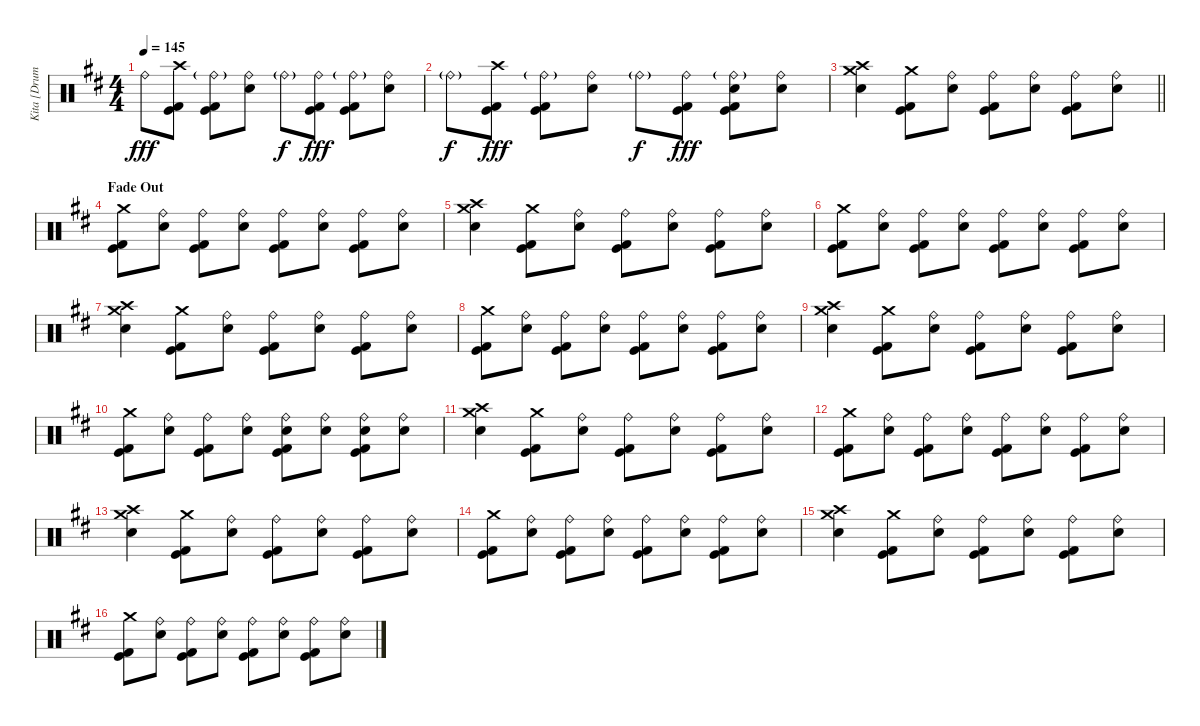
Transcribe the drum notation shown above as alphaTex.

\track ("Kita [Drums]" "Kita [Drum") {instrument percussion}
\staff {score}
\articulation defaults
\ts (4 4)
\tempo 145
\clef neutral
\ks d "Ride (bell)".8{dy fff}
("Crash high (hit)" "Kick (hit)" "Kick (hit) 2").8 ("Ride (bell)"{g} "Kick (hit)" "Kick (hit) 2").8 ("Ride (bell)" "Electric Snare (hit)").8 "Ride (bell)"{g}.8{dy f} ("Ride (bell)" "Kick (hit)" "Kick (hit) 2").8{dy fff} ("Ride (bell)"{g} "Kick (hit)" "Kick (hit) 2").8 ("Ride (bell)" "Electric Snare (hit)").8 |
"Ride (bell)"{g}.8{dy f} ("Crash high (hit)" "Kick (hit)" "Kick (hit) 2").8{dy fff} ("Ride (bell)"{g} "Kick (hit)" "Kick (hit) 2").8 ("Ride (bell)" "Electric Snare (hit)").8 "Ride (bell)"{g}.8{dy f} ("Ride (bell)" "Kick (hit)" "Kick (hit) 2").8{dy fff} ("Ride (bell)"{g} "Electric Snare (hit)" "Kick (hit)" "Kick (hit) 2").8 ("Ride (bell)" "Electric Snare (hit)").8 |
\barLineRight lightlight
("Crash high (hit)" "Crash medium (hit)" "Electric Snare (hit)").4 ("Crash medium (hit)" "Kick (hit)" "Kick (hit) 2").8 ("Ride (bell)" "Electric Snare (hit)").8 ("Ride (bell)" "Kick (hit)" "Kick (hit) 2").8 ("Ride (bell)" "Electric Snare (hit)").8 ("Ride (bell)" "Kick (hit)" "Kick (hit) 2").8 ("Ride (bell)" "Electric Snare (hit)").8 |
\section ("" "Fade Out")
("Crash medium (hit)" "Kick (hit)" "Kick (hit) 2").8 ("Ride (bell)" "Electric Snare (hit)").8 ("Ride (bell)" "Kick (hit)" "Kick (hit) 2").8 ("Ride (bell)" "Electric Snare (hit)").8 ("Ride (bell)" "Kick (hit)" "Kick (hit) 2").8 ("Ride (bell)" "Electric Snare (hit)").8 ("Ride (bell)" "Kick (hit)" "Kick (hit) 2").8 ("Ride (bell)" "Electric Snare (hit)").8 |
("Crash high (hit)" "Crash medium (hit)" "Electric Snare (hit)").4 ("Crash medium (hit)" "Kick (hit)" "Kick (hit) 2").8 ("Ride (bell)" "Electric Snare (hit)").8 ("Ride (bell)" "Kick (hit)" "Kick (hit) 2").8 ("Ride (bell)" "Electric Snare (hit)").8 ("Ride (bell)" "Kick (hit)" "Kick (hit) 2").8 ("Ride (bell)" "Electric Snare (hit)").8 |
("Crash medium (hit)" "Kick (hit)" "Kick (hit) 2").8 ("Ride (bell)" "Electric Snare (hit)").8 ("Ride (bell)" "Kick (hit)" "Kick (hit) 2").8 ("Ride (bell)" "Electric Snare (hit)").8 ("Ride (bell)" "Kick (hit)" "Kick (hit) 2").8 ("Ride (bell)" "Electric Snare (hit)").8 ("Ride (bell)" "Kick (hit)" "Kick (hit) 2").8 ("Ride (bell)" "Electric Snare (hit)").8 |
("Crash high (hit)" "Crash medium (hit)" "Electric Snare (hit)").4 ("Crash medium (hit)" "Kick (hit)" "Kick (hit) 2").8 ("Ride (bell)" "Electric Snare (hit)").8 ("Ride (bell)" "Kick (hit)" "Kick (hit) 2").8 ("Ride (bell)" "Electric Snare (hit)").8 ("Ride (bell)" "Kick (hit)" "Kick (hit) 2").8 ("Ride (bell)" "Electric Snare (hit)").8 |
("Crash medium (hit)" "Kick (hit)" "Kick (hit) 2").8 ("Ride (bell)" "Electric Snare (hit)").8 ("Ride (bell)" "Kick (hit)" "Kick (hit) 2").8 ("Ride (bell)" "Electric Snare (hit)").8 ("Ride (bell)" "Kick (hit)" "Kick (hit) 2").8 ("Ride (bell)" "Electric Snare (hit)").8 ("Ride (bell)" "Kick (hit)" "Kick (hit) 2").8 ("Ride (bell)" "Electric Snare (hit)").8 |
("Crash high (hit)" "Crash medium (hit)" "Electric Snare (hit)").4 ("Crash medium (hit)" "Kick (hit)" "Kick (hit) 2").8 ("Ride (bell)" "Electric Snare (hit)").8 ("Ride (bell)" "Kick (hit)" "Kick (hit) 2").8 ("Ride (bell)" "Electric Snare (hit)").8 ("Ride (bell)" "Kick (hit)" "Kick (hit) 2").8 ("Ride (bell)" "Electric Snare (hit)").8 |
("Crash medium (hit)" "Kick (hit)" "Kick (hit) 2").8 ("Ride (bell)" "Electric Snare (hit)").8 ("Ride (bell)" "Kick (hit)" "Kick (hit) 2").8 ("Ride (bell)" "Electric Snare (hit)").8 ("Ride (bell)" "Electric Snare (hit)" "Kick (hit)" "Kick (hit) 2").8 ("Ride (bell)" "Electric Snare (hit)").8 ("Ride (bell)" "Electric Snare (hit)" "Kick (hit)" "Kick (hit) 2").8 ("Ride (bell)" "Electric Snare (hit)").8 |
("Crash high (hit)" "Crash medium (hit)" "Electric Snare (hit)").4 ("Crash medium (hit)" "Kick (hit)" "Kick (hit) 2").8 ("Ride (bell)" "Electric Snare (hit)").8 ("Ride (bell)" "Kick (hit)" "Kick (hit) 2").8 ("Ride (bell)" "Electric Snare (hit)").8 ("Ride (bell)" "Kick (hit)" "Kick (hit) 2").8 ("Ride (bell)" "Electric Snare (hit)").8 |
("Crash medium (hit)" "Kick (hit)" "Kick (hit) 2").8 ("Ride (bell)" "Electric Snare (hit)").8 ("Ride (bell)" "Kick (hit)" "Kick (hit) 2").8 ("Ride (bell)" "Electric Snare (hit)").8 ("Ride (bell)" "Kick (hit)" "Kick (hit) 2").8 ("Ride (bell)" "Electric Snare (hit)").8 ("Ride (bell)" "Kick (hit)" "Kick (hit) 2").8 ("Ride (bell)" "Electric Snare (hit)").8 |
("Crash high (hit)" "Crash medium (hit)" "Electric Snare (hit)").4 ("Crash medium (hit)" "Kick (hit)" "Kick (hit) 2").8 ("Ride (bell)" "Electric Snare (hit)").8 ("Ride (bell)" "Kick (hit)" "Kick (hit) 2").8 ("Ride (bell)" "Electric Snare (hit)").8 ("Ride (bell)" "Kick (hit)" "Kick (hit) 2").8 ("Ride (bell)" "Electric Snare (hit)").8 |
("Crash medium (hit)" "Kick (hit)" "Kick (hit) 2").8 ("Ride (bell)" "Electric Snare (hit)").8 ("Ride (bell)" "Kick (hit)" "Kick (hit) 2").8 ("Ride (bell)" "Electric Snare (hit)").8 ("Ride (bell)" "Kick (hit)" "Kick (hit) 2").8 ("Ride (bell)" "Electric Snare (hit)").8 ("Ride (bell)" "Kick (hit)" "Kick (hit) 2").8 ("Ride (bell)" "Electric Snare (hit)").8 |
("Crash high (hit)" "Crash medium (hit)" "Electric Snare (hit)").4 ("Crash medium (hit)" "Kick (hit)" "Kick (hit) 2").8 ("Ride (bell)" "Electric Snare (hit)").8 ("Ride (bell)" "Kick (hit)" "Kick (hit) 2").8 ("Ride (bell)" "Electric Snare (hit)").8 ("Ride (bell)" "Kick (hit)" "Kick (hit) 2").8 ("Ride (bell)" "Electric Snare (hit)").8 |
("Crash medium (hit)" "Kick (hit)" "Kick (hit) 2").8 ("Ride (bell)" "Electric Snare (hit)").8 ("Ride (bell)" "Kick (hit)" "Kick (hit) 2").8 ("Ride (bell)" "Electric Snare (hit)").8 ("Ride (bell)" "Kick (hit)" "Kick (hit) 2").8 ("Ride (bell)" "Electric Snare (hit)").8 ("Ride (bell)" "Kick (hit)" "Kick (hit) 2").8 ("Ride (bell)" "Electric Snare (hit)").8
